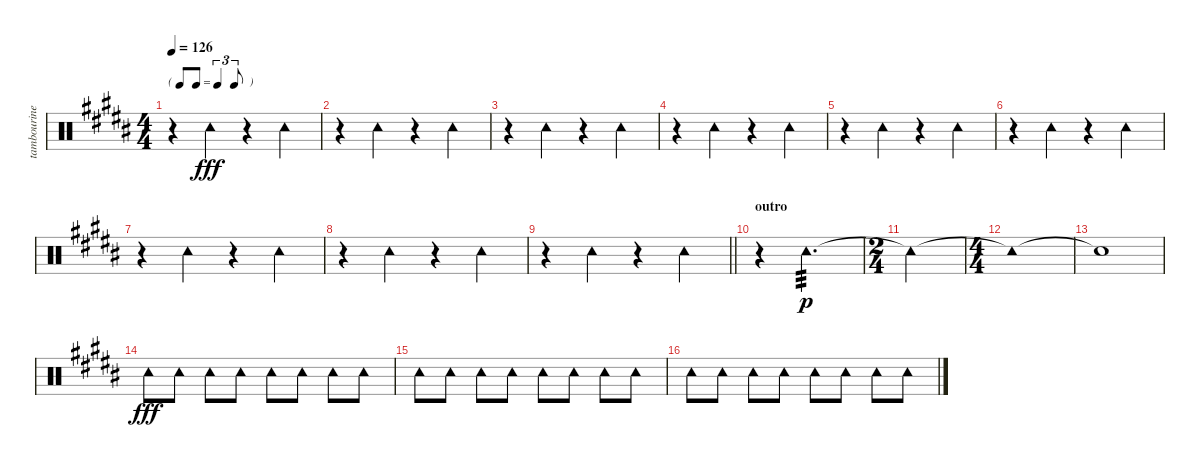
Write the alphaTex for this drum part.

\track ("tambourine" "tambourine") {instrument percussion}
\staff {score}
\articulation defaults
\ts (4 4)
\tf triplet8th
\tempo 126
\clef neutral
\ks b
r.4{dy fff} "Tambourine (hit)".4 r.4 "Tambourine (hit)".4 |
r.4 "Tambourine (hit)".4 r.4 "Tambourine (hit)".4 |
r.4 "Tambourine (hit)".4 r.4 "Tambourine (hit)".4 |
r.4 "Tambourine (hit)".4 r.4 "Tambourine (hit)".4 |
r.4 "Tambourine (hit)".4 r.4 "Tambourine (hit)".4 |
r.4 "Tambourine (hit)".4 r.4 "Tambourine (hit)".4 |
r.4 "Tambourine (hit)".4 r.4 "Tambourine (hit)".4 |
r.4 "Tambourine (hit)".4 r.4 "Tambourine (hit)".4 |
\barLineRight lightlight
r.4 "Tambourine (hit)".4 r.4 "Tambourine (hit)".4 |
\section ("" "outro")
r.4 "Tambourine (hit)".2{d tp 3 dy p} |
\ts (2 4)
"Tambourine (hit)"{t}.2 |
\ts (4 4)
"Tambourine (hit)"{t}.1 |
"Snare (hit)"{t}.1 |
"Tambourine (hit)".8{dy fff} "Tambourine (hit)".8 "Tambourine (hit)".8 "Tambourine (hit)".8 "Tambourine (hit)".8 "Tambourine (hit)".8 "Tambourine (hit)".8 "Tambourine (hit)".8 |
"Tambourine (hit)".8 "Tambourine (hit)".8 "Tambourine (hit)".8 "Tambourine (hit)".8 "Tambourine (hit)".8 "Tambourine (hit)".8 "Tambourine (hit)".8 "Tambourine (hit)".8 |
"Tambourine (hit)".8 "Tambourine (hit)".8 "Tambourine (hit)".8 "Tambourine (hit)".8 "Tambourine (hit)".8 "Tambourine (hit)".8 "Tambourine (hit)".8 "Tambourine (hit)".8
